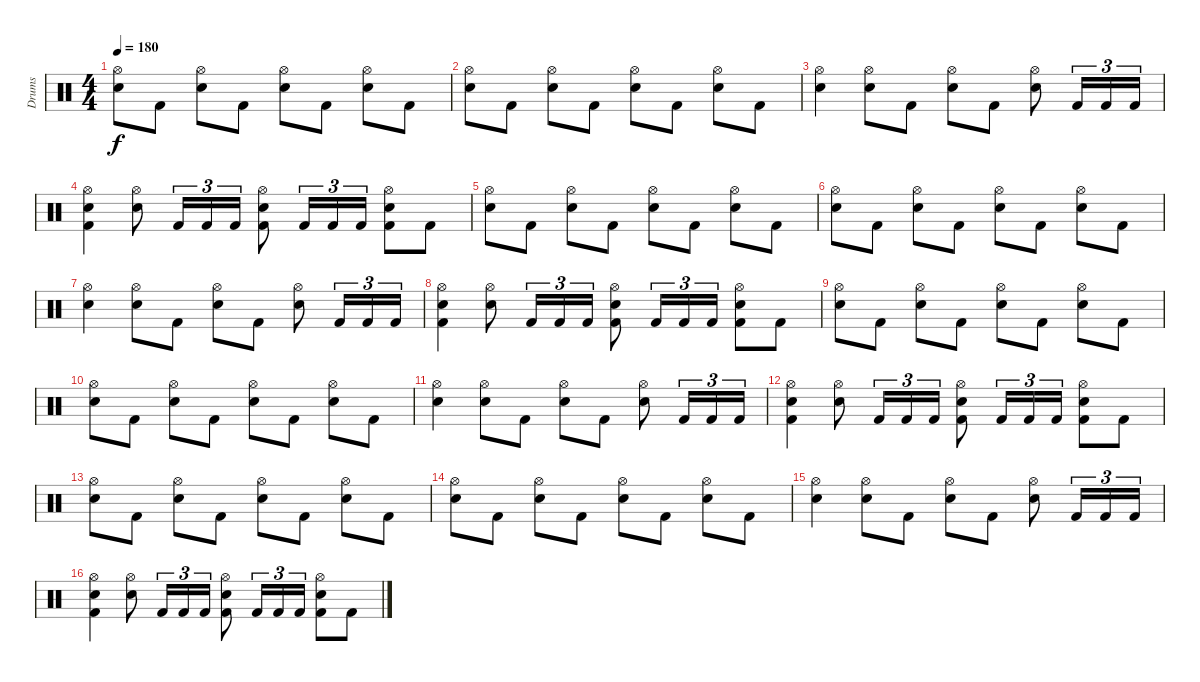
\bracketExtendMode groupsimilarinstruments
\track ("Drumkit" "Drums") {solo instrument percussion}
\staff {score}
\articulation defaults
\ts (4 4)
\tempo 180
\clef neutral
\ks c
("Hi-Hat (open)" "Snare (hit) 2").8{dy f} "Kick (hit) 2".8 ("Hi-Hat (open)" "Snare (hit) 2").8 "Kick (hit) 2".8 ("Hi-Hat (open)" "Snare (hit) 2").8 "Kick (hit) 2".8 ("Hi-Hat (open)" "Snare (hit) 2").8 "Kick (hit) 2".8 |
("Hi-Hat (open)" "Snare (hit) 2").8 "Kick (hit) 2".8 ("Hi-Hat (open)" "Snare (hit) 2").8 "Kick (hit) 2".8 ("Hi-Hat (open)" "Snare (hit) 2").8 "Kick (hit) 2".8 ("Hi-Hat (open)" "Snare (hit) 2").8 "Kick (hit) 2".8 |
("Hi-Hat (open)" "Snare (hit) 2").4 ("Hi-Hat (open)" "Snare (hit) 2").8 "Kick (hit) 2".8 ("Hi-Hat (open)" "Snare (hit) 2").8 "Kick (hit) 2".8 ("Hi-Hat (open)" "Snare (hit) 2").8 "Kick (hit) 2".16{tu (3 2)} "Kick (hit) 2".16{tu (3 2)} "Kick (hit) 2".16{tu (3 2)} |
("Hi-Hat (open)" "Snare (hit) 2" "Kick (hit) 2").4 ("Hi-Hat (open)" "Snare (hit) 2").8 "Kick (hit) 2".16{tu (3 2)} "Kick (hit) 2".16{tu (3 2)} "Kick (hit) 2".16{tu (3 2)} ("Hi-Hat (open)" "Snare (hit) 2" "Kick (hit) 2").8 "Kick (hit) 2".16{tu (3 2)} "Kick (hit) 2".16{tu (3 2)} "Kick (hit) 2".16{tu (3 2)} ("Hi-Hat (open)" "Snare (hit) 2" "Kick (hit) 2").8 "Kick (hit) 2".8 |
("Hi-Hat (open)" "Snare (hit) 2").8 "Kick (hit) 2".8 ("Hi-Hat (open)" "Snare (hit) 2").8 "Kick (hit) 2".8 ("Hi-Hat (open)" "Snare (hit) 2").8 "Kick (hit) 2".8 ("Hi-Hat (open)" "Snare (hit) 2").8 "Kick (hit) 2".8 |
("Hi-Hat (open)" "Snare (hit) 2").8 "Kick (hit) 2".8 ("Hi-Hat (open)" "Snare (hit) 2").8 "Kick (hit) 2".8 ("Hi-Hat (open)" "Snare (hit) 2").8 "Kick (hit) 2".8 ("Hi-Hat (open)" "Snare (hit) 2").8 "Kick (hit) 2".8 |
("Hi-Hat (open)" "Snare (hit) 2").4 ("Hi-Hat (open)" "Snare (hit) 2").8 "Kick (hit) 2".8 ("Hi-Hat (open)" "Snare (hit) 2").8 "Kick (hit) 2".8 ("Hi-Hat (open)" "Snare (hit) 2").8 "Kick (hit) 2".16{tu (3 2)} "Kick (hit) 2".16{tu (3 2)} "Kick (hit) 2".16{tu (3 2)} |
("Hi-Hat (open)" "Snare (hit) 2" "Kick (hit) 2").4 ("Hi-Hat (open)" "Snare (hit) 2").8 "Kick (hit) 2".16{tu (3 2)} "Kick (hit) 2".16{tu (3 2)} "Kick (hit) 2".16{tu (3 2)} ("Hi-Hat (open)" "Snare (hit) 2" "Kick (hit) 2").8 "Kick (hit) 2".16{tu (3 2)} "Kick (hit) 2".16{tu (3 2)} "Kick (hit) 2".16{tu (3 2)} ("Hi-Hat (open)" "Snare (hit) 2" "Kick (hit) 2").8 "Kick (hit) 2".8 |
("Hi-Hat (open)" "Snare (hit) 2").8 "Kick (hit) 2".8 ("Hi-Hat (open)" "Snare (hit) 2").8 "Kick (hit) 2".8 ("Hi-Hat (open)" "Snare (hit) 2").8 "Kick (hit) 2".8 ("Hi-Hat (open)" "Snare (hit) 2").8 "Kick (hit) 2".8 |
("Hi-Hat (open)" "Snare (hit) 2").8 "Kick (hit) 2".8 ("Hi-Hat (open)" "Snare (hit) 2").8 "Kick (hit) 2".8 ("Hi-Hat (open)" "Snare (hit) 2").8 "Kick (hit) 2".8 ("Hi-Hat (open)" "Snare (hit) 2").8 "Kick (hit) 2".8 |
("Hi-Hat (open)" "Snare (hit) 2").4 ("Hi-Hat (open)" "Snare (hit) 2").8 "Kick (hit) 2".8 ("Hi-Hat (open)" "Snare (hit) 2").8 "Kick (hit) 2".8 ("Hi-Hat (open)" "Snare (hit) 2").8 "Kick (hit) 2".16{tu (3 2)} "Kick (hit) 2".16{tu (3 2)} "Kick (hit) 2".16{tu (3 2)} |
("Hi-Hat (open)" "Snare (hit) 2" "Kick (hit) 2").4 ("Hi-Hat (open)" "Snare (hit) 2").8 "Kick (hit) 2".16{tu (3 2)} "Kick (hit) 2".16{tu (3 2)} "Kick (hit) 2".16{tu (3 2)} ("Hi-Hat (open)" "Snare (hit) 2" "Kick (hit) 2").8 "Kick (hit) 2".16{tu (3 2)} "Kick (hit) 2".16{tu (3 2)} "Kick (hit) 2".16{tu (3 2)} ("Hi-Hat (open)" "Snare (hit) 2" "Kick (hit) 2").8 "Kick (hit) 2".8 |
("Hi-Hat (open)" "Snare (hit) 2").8 "Kick (hit) 2".8 ("Hi-Hat (open)" "Snare (hit) 2").8 "Kick (hit) 2".8 ("Hi-Hat (open)" "Snare (hit) 2").8 "Kick (hit) 2".8 ("Hi-Hat (open)" "Snare (hit) 2").8 "Kick (hit) 2".8 |
("Hi-Hat (open)" "Snare (hit) 2").8 "Kick (hit) 2".8 ("Hi-Hat (open)" "Snare (hit) 2").8 "Kick (hit) 2".8 ("Hi-Hat (open)" "Snare (hit) 2").8 "Kick (hit) 2".8 ("Hi-Hat (open)" "Snare (hit) 2").8 "Kick (hit) 2".8 |
("Hi-Hat (open)" "Snare (hit) 2").4 ("Hi-Hat (open)" "Snare (hit) 2").8 "Kick (hit) 2".8 ("Hi-Hat (open)" "Snare (hit) 2").8 "Kick (hit) 2".8 ("Hi-Hat (open)" "Snare (hit) 2").8 "Kick (hit) 2".16{tu (3 2)} "Kick (hit) 2".16{tu (3 2)} "Kick (hit) 2".16{tu (3 2)} |
("Hi-Hat (open)" "Snare (hit) 2" "Kick (hit) 2").4 ("Hi-Hat (open)" "Snare (hit) 2").8 "Kick (hit) 2".16{tu (3 2)} "Kick (hit) 2".16{tu (3 2)} "Kick (hit) 2".16{tu (3 2)} ("Hi-Hat (open)" "Snare (hit) 2" "Kick (hit) 2").8 "Kick (hit) 2".16{tu (3 2)} "Kick (hit) 2".16{tu (3 2)} "Kick (hit) 2".16{tu (3 2)} ("Hi-Hat (open)" "Snare (hit) 2" "Kick (hit) 2").8 "Kick (hit) 2".8
